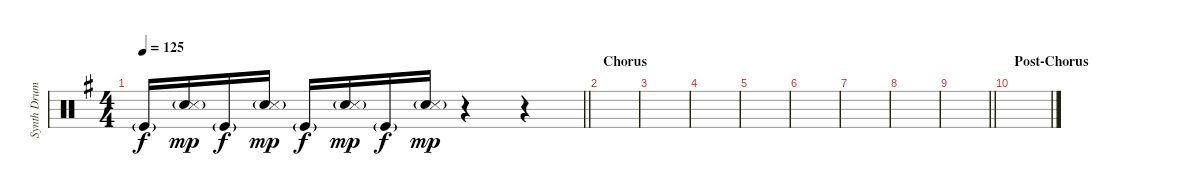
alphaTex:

\track ("Synth Drums" "Synth Drum") {instrument percussion}
\staff {score}
\articulation defaults
\ts (4 4)
\tempo 125
\clef neutral
\barLineRight lightlight
\ks eminor "Kick (hit)"{g}.16{dy f}
("Snare (hit) 2"{g} "Snare (side stick) 3").16{dy mp} "Kick (hit)"{g}.16{dy f} ("Snare (hit) 2"{g} "Snare (side stick) 3").16{dy mp} "Kick (hit)"{g}.16{dy f} ("Snare (hit) 2"{g} "Snare (side stick) 3").16{dy mp} "Kick (hit)"{g}.16{dy f} ("Snare (hit) 2"{g} "Snare (side stick) 3").16{dy mp} r.4 r.4 |
\section ("" "Chorus")
|
|
|
|
|
|
|
\barLineRight lightlight
|
\section ("" "Post-Chorus")
